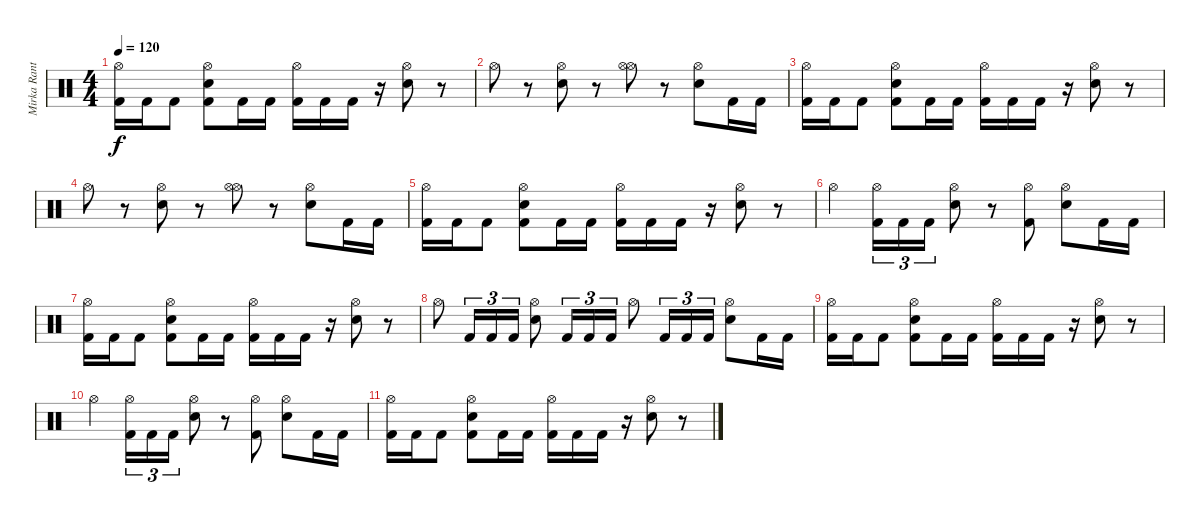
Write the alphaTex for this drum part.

\track ("Mirka Rantanen" "Mirka Rant") {instrument percussion}
\staff {score}
\articulation defaults
\ts (4 4)
\tempo 120
\clef neutral
\ks c
("Hi-Hat (open)" "Kick (hit) 2").16{dy f} "Kick (hit) 2".16 "Kick (hit) 2".8 ("Hi-Hat (open)" "Snare (hit) 2" "Kick (hit) 2").8 "Kick (hit) 2".16 "Kick (hit) 2".16 ("Hi-Hat (open)" "Kick (hit) 2").16 "Kick (hit) 2".16 "Kick (hit) 2".16 r.16 ("Hi-Hat (open)" "Snare (hit) 2").8 r.8 |
"Hi-Hat (open)".8 r.8 ("Snare (hit) 2" "Hi-Hat (open)").8 r.8 ("Hi-Hat (open)" "Hi-Hat (open)").8 r.8 ("Snare (hit) 2" "Hi-Hat (open)").8 "Kick (hit) 2".16 "Kick (hit) 2".16 |
("Hi-Hat (open)" "Kick (hit) 2").16 "Kick (hit) 2".16 "Kick (hit) 2".8 ("Hi-Hat (open)" "Snare (hit) 2" "Kick (hit) 2").8 "Kick (hit) 2".16 "Kick (hit) 2".16 ("Hi-Hat (open)" "Kick (hit) 2").16 "Kick (hit) 2".16 "Kick (hit) 2".16 r.16 ("Hi-Hat (open)" "Snare (hit) 2").8 r.8 |
"Hi-Hat (open)".8 r.8 ("Snare (hit) 2" "Hi-Hat (open)").8 r.8 ("Hi-Hat (open)" "Hi-Hat (open)").8 r.8 ("Snare (hit) 2" "Hi-Hat (open)").8 "Kick (hit) 2".16 "Kick (hit) 2".16 |
("Hi-Hat (open)" "Kick (hit) 2").16 "Kick (hit) 2".16 "Kick (hit) 2".8 ("Hi-Hat (open)" "Snare (hit) 2" "Kick (hit) 2").8 "Kick (hit) 2".16 "Kick (hit) 2".16 ("Hi-Hat (open)" "Kick (hit) 2").16 "Kick (hit) 2".16 "Kick (hit) 2".16 r.16 ("Hi-Hat (open)" "Snare (hit) 2").8 r.8 |
"Hi-Hat (open)".4 ("Hi-Hat (open)" "Kick (hit) 2").16{tu (3 2)} "Kick (hit) 2".16{tu (3 2)} "Kick (hit) 2".16{tu (3 2)} ("Hi-Hat (open)" "Snare (hit) 2").8 r.8 ("Hi-Hat (open)" "Kick (hit) 2").8 ("Hi-Hat (open)" "Snare (hit) 2").8 "Kick (hit) 2".16 "Kick (hit) 2".16 |
("Hi-Hat (open)" "Kick (hit) 2").16 "Kick (hit) 2".16 "Kick (hit) 2".8 ("Hi-Hat (open)" "Snare (hit) 2" "Kick (hit) 2").8 "Kick (hit) 2".16 "Kick (hit) 2".16 ("Hi-Hat (open)" "Kick (hit) 2").16 "Kick (hit) 2".16 "Kick (hit) 2".16 r.16 ("Hi-Hat (open)" "Snare (hit) 2").8 r.8 |
"Hi-Hat (open)".8 "Kick (hit) 2".16{tu (3 2)} "Kick (hit) 2".16{tu (3 2)} "Kick (hit) 2".16{tu (3 2)} ("Snare (hit) 2" "Hi-Hat (open)").8 "Kick (hit) 2".16{tu (3 2)} "Kick (hit) 2".16{tu (3 2)} "Kick (hit) 2".16{tu (3 2)} "Hi-Hat (open)".8 "Kick (hit) 2".16{tu (3 2)} "Kick (hit) 2".16{tu (3 2)} "Kick (hit) 2".16{tu (3 2)} ("Hi-Hat (open)" "Snare (hit) 2").8 "Kick (hit) 2".16 "Kick (hit) 2".16 |
("Hi-Hat (open)" "Kick (hit) 2").16 "Kick (hit) 2".16 "Kick (hit) 2".8 ("Hi-Hat (open)" "Snare (hit) 2" "Kick (hit) 2").8 "Kick (hit) 2".16 "Kick (hit) 2".16 ("Hi-Hat (open)" "Kick (hit) 2").16 "Kick (hit) 2".16 "Kick (hit) 2".16 r.16 ("Hi-Hat (open)" "Snare (hit) 2").8 r.8 |
"Hi-Hat (open)".4 ("Hi-Hat (open)" "Kick (hit) 2").16{tu (3 2)} "Kick (hit) 2".16{tu (3 2)} "Kick (hit) 2".16{tu (3 2)} ("Hi-Hat (open)" "Snare (hit) 2").8 r.8 ("Hi-Hat (open)" "Kick (hit) 2").8 ("Hi-Hat (open)" "Snare (hit) 2").8 "Kick (hit) 2".16 "Kick (hit) 2".16 |
("Hi-Hat (open)" "Kick (hit) 2").16 "Kick (hit) 2".16 "Kick (hit) 2".8 ("Hi-Hat (open)" "Snare (hit) 2" "Kick (hit) 2").8 "Kick (hit) 2".16 "Kick (hit) 2".16 ("Hi-Hat (open)" "Kick (hit) 2").16 "Kick (hit) 2".16 "Kick (hit) 2".16 r.16 ("Hi-Hat (open)" "Snare (hit) 2").8 r.8
